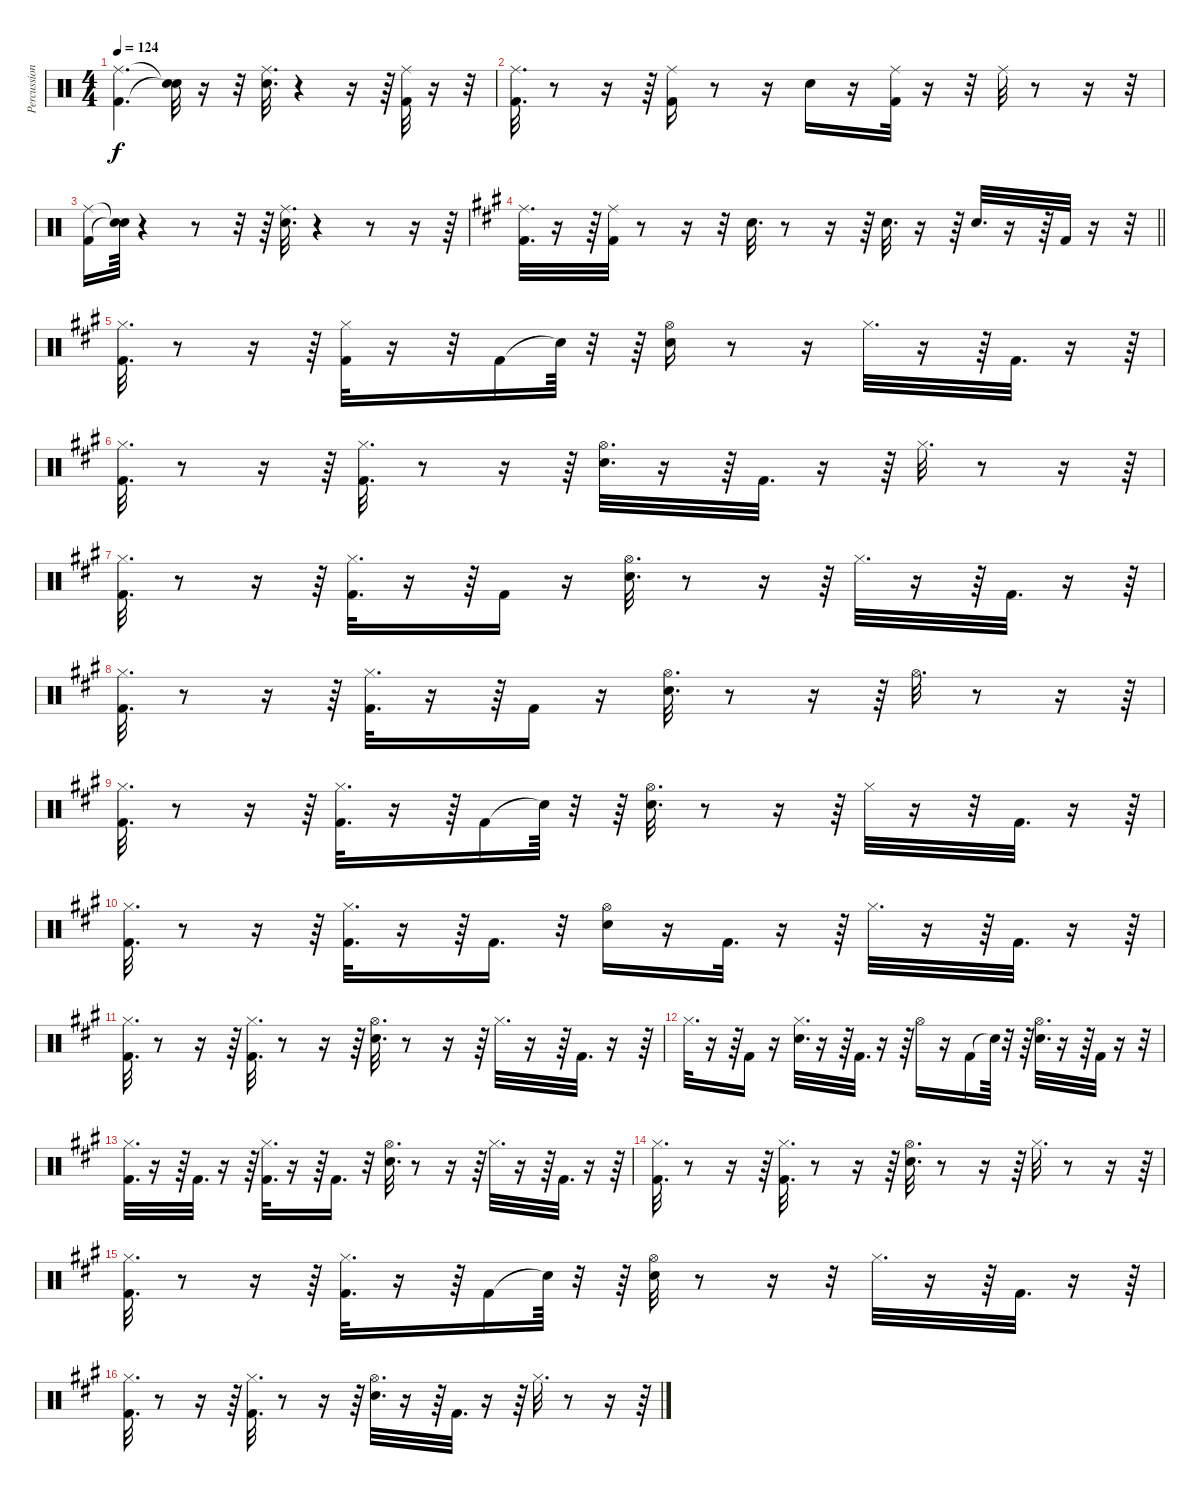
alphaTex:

\track ("Percussion" "Percussion") {instrument percussion}
\staff {score}
\articulation defaults
\ts (4 4)
\tempo 124
\clef neutral
\ks c
("Ride (middle)" "Kick (hit) 2").4{d dy f} ("Snare (hit)"{t} "Snare (hit)"{t}).32 r.16 r.32 ("Ride (middle)" "Electric Snare (hit)").32{d} r.4 r.16 r.64 ("Ride (middle)" "Kick (hit) 2").32 r.16 r.32 |
("Kick (hit) 2" "Ride (middle)").32{d} r.8 r.16 r.64 ("Kick (hit) 2" "Ride (middle)").16 r.8 r.16 "Electric Snare (hit)".16 r.16 ("Ride (middle)" "Kick (hit) 2").32 r.16 r.32 "Ride (middle)".32 r.8 r.16 r.32 |
("Ride (middle)" "Kick (hit) 2").16 ("Snare (hit)"{t} "Snare (hit)"{t}).64 r.4 r.8 r.32 r.64 ("Ride (middle)" "Electric Snare (hit)").32{d} r.4 r.8 r.16 r.64 |
\barLineRight lightlight
\ks f#minor
("Ride (middle)" "Kick (hit) 2").32{d} r.16 r.64 ("Ride (middle)" "Kick (hit) 2").32 r.8 r.16 r.32 "Electric Snare (hit)".32{d} r.8 r.16 r.64 "Electric Snare (hit)".32{d} r.16 r.64 "Electric Snare (hit)".32{d} r.16 r.64 "Kick (hit) 2".32 r.16 r.32 |
("Kick (hit) 2" "Hi-Hat (closed)").32{d} r.8 r.16 r.64 ("Kick (hit) 2" "Hi-Hat (closed)").32 r.16 r.32 "Kick (hit) 2".16 "Snare (hit)"{t}.64 r.32 r.64 ("Electric Snare (hit)" "Hi-Hat (open)").16 r.8 r.16 "Hi-Hat (closed)".32{d} r.16 r.64 "Kick (hit) 2".32{d} r.16 r.64 |
("Kick (hit) 2" "Hi-Hat (closed)").32{d} r.8 r.16 r.64 ("Kick (hit) 2" "Hi-Hat (closed)").32{d} r.8 r.16 r.64 ("Electric Snare (hit)" "Hi-Hat (open)").32{d} r.16 r.64 "Kick (hit) 2".32{d} r.16 r.64 "Hi-Hat (closed)".32{d} r.8 r.16 r.64 |
("Hi-Hat (closed)" "Kick (hit) 2").32{d} r.8 r.16 r.64 ("Kick (hit) 2" "Hi-Hat (closed)").32{d} r.16 r.64 "Kick (hit) 2".16 r.16 ("Hi-Hat (open)" "Electric Snare (hit)").32{d} r.8 r.16 r.64 "Hi-Hat (closed)".32{d} r.16 r.64 "Kick (hit) 2".32{d} r.16 r.64 |
("Kick (hit) 2" "Hi-Hat (closed)").32{d} r.8 r.16 r.64 ("Kick (hit) 2" "Hi-Hat (closed)").32{d} r.16 r.64 "Kick (hit) 2".16 r.16 ("Hi-Hat (open)" "Electric Snare (hit)").32{d} r.8 r.16 r.64 "Hi-Hat (open)".32{d} r.8 r.16 r.64 |
("Kick (hit) 2" "Hi-Hat (closed)").32{d} r.8 r.16 r.64 ("Kick (hit) 2" "Hi-Hat (closed)").32{d} r.16 r.64 "Kick (hit) 2".16 "Snare (hit)"{t}.64 r.32 r.64 ("Electric Snare (hit)" "Hi-Hat (open)").32{d} r.8 r.16 r.64 "Hi-Hat (closed)".32 r.16 r.32 "Kick (hit) 2".32{d} r.16 r.64 |
("Hi-Hat (closed)" "Kick (hit) 2").32{d} r.8 r.16 r.64 ("Hi-Hat (closed)" "Kick (hit) 2").32{d} r.16 r.64 "Kick (hit) 2".16{d} r.32 ("Hi-Hat (open)" "Electric Snare (hit)").16 r.16 "Kick (hit) 2".32{d} r.16 r.64 "Hi-Hat (closed)".32{d} r.16 r.64 "Kick (hit) 2".32{d} r.16 r.64 |
("Kick (hit) 2" "Hi-Hat (closed)").32{d} r.8 r.16 r.64 ("Kick (hit) 2" "Hi-Hat (closed)").32{d} r.8 r.16 r.64 ("Hi-Hat (open)" "Electric Snare (hit)").32{d} r.8 r.16 r.64 "Hi-Hat (closed)".32{d} r.16 r.64 "Kick (hit) 2".32{d} r.16 r.64 |
"Hi-Hat (closed)".32{d} r.16 r.64 "Kick (hit) 2".16 r.16 ("Electric Snare (hit)" "Hi-Hat (closed)").32{d} r.16 r.64 "Kick (hit) 2".32{d} r.16 r.64 "Hi-Hat (open)".16 r.16 "Kick (hit) 2".16 "Snare (hit)"{t}.64 r.32 r.64 ("Hi-Hat (open)" "Electric Snare (hit)").32{d} r.16 r.64 "Kick (hit) 2".32 r.16 r.32 |
("Kick (hit) 2" "Hi-Hat (closed)").32{d} r.16 r.64 "Kick (hit) 2".32{d} r.16 r.64 ("Kick (hit) 2" "Hi-Hat (closed)").32{d} r.16 r.64 "Kick (hit) 2".16{d} r.32 ("Hi-Hat (open)" "Electric Snare (hit)").32{d} r.8 r.16 r.64 "Hi-Hat (closed)".32{d} r.16 r.64 "Kick (hit) 2".32{d} r.16 r.64 |
("Hi-Hat (closed)" "Kick (hit) 2").32{d} r.8 r.16 r.64 ("Hi-Hat (closed)" "Kick (hit) 2").32{d} r.8 r.16 r.64 ("Hi-Hat (open)" "Electric Snare (hit)").32{d} r.8 r.16 r.64 "Hi-Hat (closed)".32{d} r.8 r.16 r.64 |
("Hi-Hat (closed)" "Kick (hit) 2").32{d} r.8 r.16 r.64 ("Kick (hit) 2" "Hi-Hat (closed)").32{d} r.16 r.64 "Kick (hit) 2".16 "Snare (hit)"{t}.64 r.32 r.64 ("Electric Snare (hit)" "Hi-Hat (open)").32 r.8 r.16 r.32 "Hi-Hat (closed)".32{d} r.16 r.64 "Kick (hit) 2".32{d} r.16 r.64 |
("Hi-Hat (closed)" "Kick (hit) 2").32{d} r.8 r.16 r.64 ("Hi-Hat (closed)" "Kick (hit) 2").32{d} r.8 r.16 r.64 ("Hi-Hat (open)" "Electric Snare (hit)").32{d} r.16 r.64 "Kick (hit) 2".32{d} r.16 r.64 "Hi-Hat (closed)".32{d} r.8 r.16 r.64
